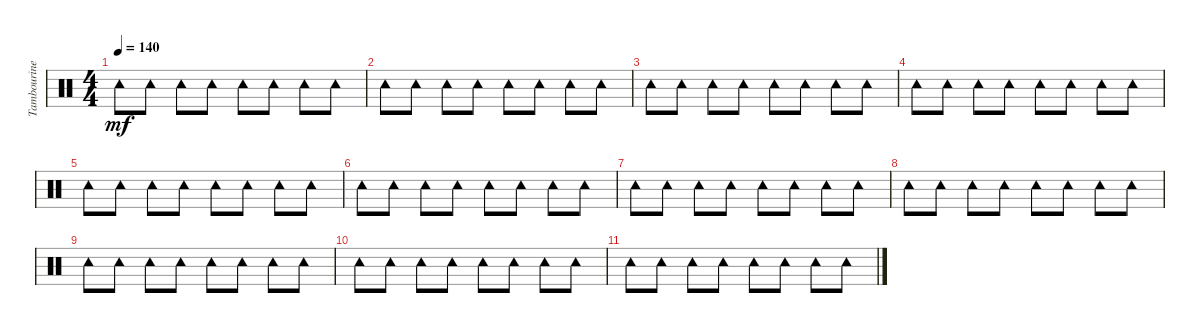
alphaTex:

\track ("Tambourine" "Tambourine") {instrument percussion}
\staff {score}
\articulation defaults
\ts (4 4)
\tempo 140
\clef neutral
\ks c "Tambourine (hit)".8{dy mf} "Tambourine (hit)".8 "Tambourine (hit)".8 "Tambourine (hit)".8 "Tambourine (hit)".8 "Tambourine (hit)".8 "Tambourine (hit)".8 "Tambourine (hit)".8
|
"Tambourine (hit)".8 "Tambourine (hit)".8 "Tambourine (hit)".8 "Tambourine (hit)".8 "Tambourine (hit)".8 "Tambourine (hit)".8 "Tambourine (hit)".8 "Tambourine (hit)".8 |
"Tambourine (hit)".8 "Tambourine (hit)".8 "Tambourine (hit)".8 "Tambourine (hit)".8 "Tambourine (hit)".8 "Tambourine (hit)".8 "Tambourine (hit)".8 "Tambourine (hit)".8 |
"Tambourine (hit)".8 "Tambourine (hit)".8 "Tambourine (hit)".8 "Tambourine (hit)".8 "Tambourine (hit)".8 "Tambourine (hit)".8 "Tambourine (hit)".8 "Tambourine (hit)".8 |
"Tambourine (hit)".8 "Tambourine (hit)".8 "Tambourine (hit)".8 "Tambourine (hit)".8 "Tambourine (hit)".8 "Tambourine (hit)".8 "Tambourine (hit)".8 "Tambourine (hit)".8 |
"Tambourine (hit)".8 "Tambourine (hit)".8 "Tambourine (hit)".8 "Tambourine (hit)".8 "Tambourine (hit)".8 "Tambourine (hit)".8 "Tambourine (hit)".8 "Tambourine (hit)".8 |
"Tambourine (hit)".8 "Tambourine (hit)".8 "Tambourine (hit)".8 "Tambourine (hit)".8 "Tambourine (hit)".8 "Tambourine (hit)".8 "Tambourine (hit)".8 "Tambourine (hit)".8 |
"Tambourine (hit)".8 "Tambourine (hit)".8 "Tambourine (hit)".8 "Tambourine (hit)".8 "Tambourine (hit)".8 "Tambourine (hit)".8 "Tambourine (hit)".8 "Tambourine (hit)".8 |
"Tambourine (hit)".8 "Tambourine (hit)".8 "Tambourine (hit)".8 "Tambourine (hit)".8 "Tambourine (hit)".8 "Tambourine (hit)".8 "Tambourine (hit)".8 "Tambourine (hit)".8 |
"Tambourine (hit)".8 "Tambourine (hit)".8 "Tambourine (hit)".8 "Tambourine (hit)".8 "Tambourine (hit)".8 "Tambourine (hit)".8 "Tambourine (hit)".8 "Tambourine (hit)".8 |
"Tambourine (hit)".8 "Tambourine (hit)".8 "Tambourine (hit)".8 "Tambourine (hit)".8 "Tambourine (hit)".8 "Tambourine (hit)".8 "Tambourine (hit)".8 "Tambourine (hit)".8
